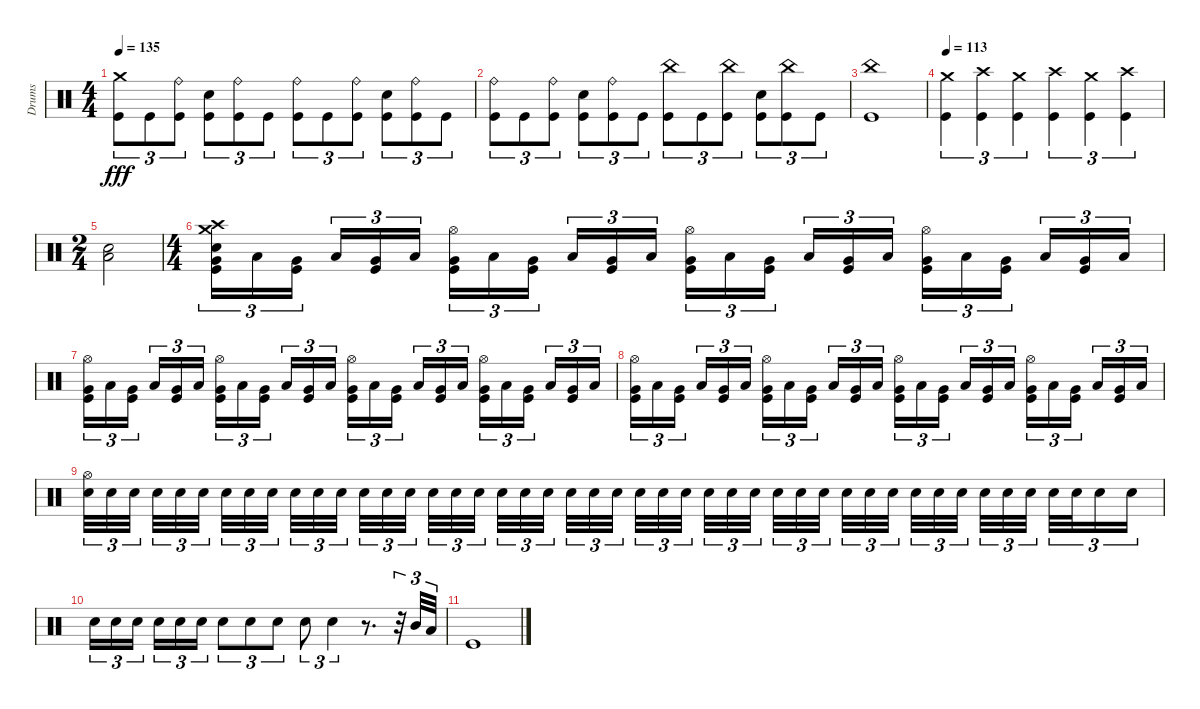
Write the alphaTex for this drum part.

\track ("Drums" "Drums") {instrument percussion}
\staff {score}
\articulation defaults
\ts (4 4)
\tempo 135
\clef neutral
\ks c
("Crash medium (hit)" "Kick (hit)").8{tu (3 2) dy fff} "Kick (hit)".8{tu (3 2)} ("Ride (bell)" "Kick (hit)").8{tu (3 2)} ("Snare (hit) 2" "Kick (hit)").8{tu (3 2)} ("Ride (bell)" "Kick (hit)").8{tu (3 2)} "Kick (hit)".8{tu (3 2)} ("Ride (bell)" "Kick (hit)").8{tu (3 2)} "Kick (hit)".8{tu (3 2)} ("Ride (bell)" "Kick (hit)").8{tu (3 2)} ("Snare (hit) 2" "Kick (hit)").8{tu (3 2)} ("Ride (bell)" "Kick (hit)").8{tu (3 2)} "Kick (hit)".8{tu (3 2)} |
("Ride (bell)" "Kick (hit)").8{tu (3 2)} "Kick (hit)".8{tu (3 2)} ("Ride (bell)" "Kick (hit)").8{tu (3 2)} ("Snare (hit) 2" "Kick (hit)").8{tu (3 2)} ("Ride (bell)" "Kick (hit)").8{tu (3 2)} "Kick (hit)".8{tu (3 2)} ("China (hit)" "Kick (hit)").8{tu (3 2)} "Kick (hit)".8{tu (3 2)} ("China (hit)" "Kick (hit)").8{tu (3 2)} ("Snare (hit) 2" "Kick (hit)").8{tu (3 2)} ("China (hit)" "Kick (hit)").8{tu (3 2)} "Kick (hit)".8{tu (3 2)} |
("China (hit)" "Kick (hit)").1 |
\tempo 113
("Crash medium (hit)" "Kick (hit)").4{tu (3 2)} ("Crash high (hit)" "Kick (hit)").4{tu (3 2)} ("Crash medium (hit)" "Kick (hit)").4{tu (3 2)} ("Crash high (hit)" "Kick (hit)").4{tu (3 2)} ("Crash medium (hit)" "Kick (hit)").4{tu (3 2)} ("Crash high (hit)" "Kick (hit)").4{tu (3 2)} |
\ts (2 4)
("Low Tom (hit)" "Snare (hit) 2").2 |
\ts (4 4)
("Crash medium (hit)" "Crash high (hit)" "Very Low Tom (hit)" "Snare (hit) 2" "Kick (hit)").16{tu (3 2)} "Low Tom (hit)".16{tu (3 2)} ("Very Low Tom (hit)" "Kick (hit)").16{tu (3 2)} "Low Tom (hit)".16{tu (3 2)} ("Very Low Tom (hit)" "Kick (hit)").16{tu (3 2)} "Low Floor Tom (hit)".16{tu (3 2)} ("Hi-Hat (open)" "Very Low Tom (hit)" "Kick (hit)").16{tu (3 2)} "Low Tom (hit)".16{tu (3 2)} ("Very Low Tom (hit)" "Kick (hit)").16{tu (3 2)} "Low Tom (hit)".16{tu (3 2)} ("Very Low Tom (hit)" "Kick (hit)").16{tu (3 2)} "Low Floor Tom (hit)".16{tu (3 2)} ("Hi-Hat (open)" "Very Low Tom (hit)" "Kick (hit)").16{tu (3 2)} "Low Tom (hit)".16{tu (3 2)} ("Very Low Tom (hit)" "Kick (hit)").16{tu (3 2)} "Low Tom (hit)".16{tu (3 2)} ("Very Low Tom (hit)" "Kick (hit)").16{tu (3 2)} "Low Floor Tom (hit)".16{tu (3 2)} ("Hi-Hat (open)" "Very Low Tom (hit)" "Kick (hit)").16{tu (3 2)} "Low Tom (hit)".16{tu (3 2)} ("Very Low Tom (hit)" "Kick (hit)").16{tu (3 2)} "Low Tom (hit)".16{tu (3 2)} ("Very Low Tom (hit)" "Kick (hit)").16{tu (3 2)} "Low Floor Tom (hit)".16{tu (3 2)} |
("Hi-Hat (open)" "Very Low Tom (hit)" "Kick (hit)").16{tu (3 2)} "Low Tom (hit)".16{tu (3 2)} ("Very Low Tom (hit)" "Kick (hit)").16{tu (3 2)} "Low Tom (hit)".16{tu (3 2)} ("Very Low Tom (hit)" "Kick (hit)").16{tu (3 2)} "Low Floor Tom (hit)".16{tu (3 2)} ("Hi-Hat (open)" "Very Low Tom (hit)" "Kick (hit)").16{tu (3 2)} "Low Tom (hit)".16{tu (3 2)} ("Very Low Tom (hit)" "Kick (hit)").16{tu (3 2)} "Low Tom (hit)".16{tu (3 2)} ("Very Low Tom (hit)" "Kick (hit)").16{tu (3 2)} "Low Floor Tom (hit)".16{tu (3 2)} ("Hi-Hat (open)" "Very Low Tom (hit)" "Kick (hit)").16{tu (3 2)} "Low Tom (hit)".16{tu (3 2)} ("Very Low Tom (hit)" "Kick (hit)").16{tu (3 2)} "Low Tom (hit)".16{tu (3 2)} ("Very Low Tom (hit)" "Kick (hit)").16{tu (3 2)} "Low Floor Tom (hit)".16{tu (3 2)} ("Hi-Hat (open)" "Very Low Tom (hit)" "Kick (hit)").16{tu (3 2)} "Low Tom (hit)".16{tu (3 2)} ("Very Low Tom (hit)" "Kick (hit)").16{tu (3 2)} "Low Tom (hit)".16{tu (3 2)} ("Very Low Tom (hit)" "Kick (hit)").16{tu (3 2)} "Low Floor Tom (hit)".16{tu (3 2)} |
("Hi-Hat (open)" "Very Low Tom (hit)" "Kick (hit)").16{tu (3 2)} "Low Tom (hit)".16{tu (3 2)} ("Very Low Tom (hit)" "Kick (hit)").16{tu (3 2)} "Low Tom (hit)".16{tu (3 2)} ("Very Low Tom (hit)" "Kick (hit)").16{tu (3 2)} "Low Floor Tom (hit)".16{tu (3 2)} ("Hi-Hat (open)" "Very Low Tom (hit)" "Kick (hit)").16{tu (3 2)} "Low Tom (hit)".16{tu (3 2)} ("Very Low Tom (hit)" "Kick (hit)").16{tu (3 2)} "Low Tom (hit)".16{tu (3 2)} ("Very Low Tom (hit)" "Kick (hit)").16{tu (3 2)} "Low Floor Tom (hit)".16{tu (3 2)} ("Hi-Hat (open)" "Very Low Tom (hit)" "Kick (hit)").16{tu (3 2)} "Low Tom (hit)".16{tu (3 2)} ("Very Low Tom (hit)" "Kick (hit)").16{tu (3 2)} "Low Tom (hit)".16{tu (3 2)} ("Very Low Tom (hit)" "Kick (hit)").16{tu (3 2)} "Low Floor Tom (hit)".16{tu (3 2)} ("Hi-Hat (open)" "Very Low Tom (hit)" "Kick (hit)").16{tu (3 2)} "Low Tom (hit)".16{tu (3 2)} ("Very Low Tom (hit)" "Kick (hit)").16{tu (3 2)} "Low Tom (hit)".16{tu (3 2)} ("Very Low Tom (hit)" "Kick (hit)").16{tu (3 2)} "Low Floor Tom (hit)".16{tu (3 2)} |
("Hi-Hat (open)" "Snare (hit) 2").32{tu (3 2)} "Snare (hit) 2".32{tu (3 2)} "Snare (hit) 2".32{tu (3 2)} "Snare (hit) 2".32{tu (3 2)} "Snare (hit) 2".32{tu (3 2)} "Snare (hit) 2".32{tu (3 2)} "Snare (hit) 2".32{tu (3 2)} "Snare (hit) 2".32{tu (3 2)} "Snare (hit) 2".32{tu (3 2)} "Snare (hit) 2".32{tu (3 2)} "Snare (hit) 2".32{tu (3 2)} "Snare (hit) 2".32{tu (3 2)} "Snare (hit) 2".32{tu (3 2)} "Snare (hit) 2".32{tu (3 2)} "Snare (hit) 2".32{tu (3 2)} "Snare (hit) 2".32{tu (3 2)} "Snare (hit) 2".32{tu (3 2)} "Snare (hit) 2".32{tu (3 2)} "Snare (hit) 2".32{tu (3 2)} "Snare (hit) 2".32{tu (3 2)} "Snare (hit) 2".32{tu (3 2)} "Snare (hit) 2".32{tu (3 2)} "Snare (hit) 2".32{tu (3 2)} "Snare (hit) 2".32{tu (3 2)} "Snare (hit) 2".32{tu (3 2)} "Snare (hit) 2".32{tu (3 2)} "Snare (hit) 2".32{tu (3 2)} "Snare (hit) 2".32{tu (3 2)} "Snare (hit) 2".32{tu (3 2)} "Snare (hit) 2".32{tu (3 2)} "Snare (hit) 2".32{tu (3 2)} "Snare (hit) 2".32{tu (3 2)} "Snare (hit) 2".32{tu (3 2)} "Snare (hit) 2".32{tu (3 2)} "Snare (hit) 2".32{tu (3 2)} "Snare (hit) 2".32{tu (3 2)} "Snare (hit) 2".32{tu (3 2)} "Snare (hit) 2".32{tu (3 2)} "Snare (hit) 2".32{tu (3 2)} "Snare (hit) 2".32{tu (3 2)} "Snare (hit) 2".32{tu (3 2)} "Snare (hit) 2".32{tu (3 2)} "Snare (hit) 2".32{tu (3 2)} "Snare (hit) 2".32{tu (3 2)} "Snare (hit) 2".16{tu (3 2)} "Snare (hit) 2".16{tu (3 2)} |
"Snare (hit) 2".16{tu (3 2)} "Snare (hit) 2".16{tu (3 2)} "Snare (hit) 2".16{tu (3 2)} "Snare (hit) 2".16{tu (3 2)} "Snare (hit) 2".16{tu (3 2)} "Snare (hit) 2".16{tu (3 2)} "Snare (hit) 2".8{tu (3 2)} "Snare (hit) 2".8{tu (3 2)} "Snare (hit) 2".8{tu (3 2)} "Snare (hit) 2".8{tu (3 2)} "Snare (hit) 2".4{tu (3 2)} r.8{d} r.32{tu (3 2)} "Mid Tom (hit)".32{tu (3 2)} "Low Tom (hit)".32{tu (3 2)} |
"Kick (hit)".1
